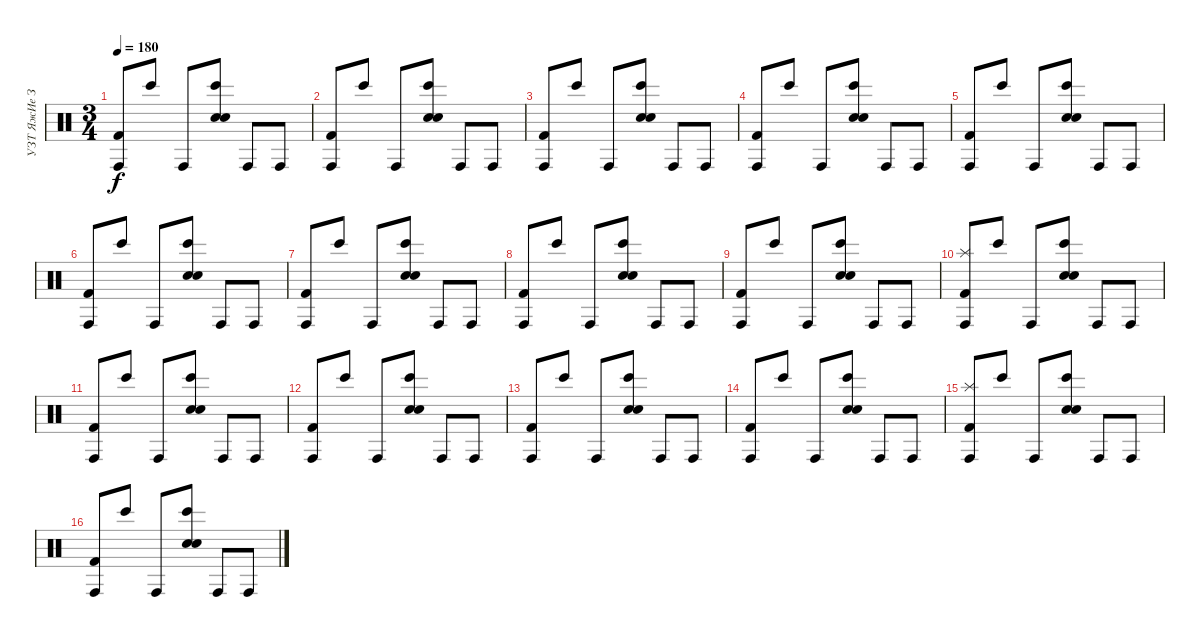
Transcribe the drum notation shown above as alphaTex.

\track ("УЗТ ЯжИе Зн" "УЗТ ЯжИе З") {instrument percussion}
\staff {score}
\articulation defaults
\ts (3 4)
\tempo 180
\clef neutral
\ks c
("Conga high (hit)" "Kick (hit) 2").8{dy f} "Bongo High (hit)".8 "Conga high (hit)".8 ("Bongo High (hit)" "Snare (hit) 2" "Hand Clap (hit)").8 "Conga high (hit)".8 "Conga high (hit)".8 |
("Conga high (hit)" "Kick (hit) 2").8 "Bongo High (hit)".8 "Conga high (hit)".8 ("Bongo High (hit)" "Snare (hit) 2" "Hand Clap (hit)").8 "Conga high (hit)".8 "Conga high (hit)".8 |
("Conga high (hit)" "Kick (hit) 2").8 "Bongo High (hit)".8 "Conga high (hit)".8 ("Bongo High (hit)" "Snare (hit) 2" "Hand Clap (hit)").8 "Conga high (hit)".8 "Conga high (hit)".8 |
("Conga high (hit)" "Kick (hit) 2").8 "Bongo High (hit)".8 "Conga high (hit)".8 ("Bongo High (hit)" "Snare (hit) 2" "Hand Clap (hit)").8 "Conga high (hit)".8 "Conga high (hit)".8 |
("Conga high (hit)" "Kick (hit) 2").8 "Bongo High (hit)".8 "Conga high (hit)".8 ("Bongo High (hit)" "Snare (hit) 2" "Hand Clap (hit)").8 "Conga high (hit)".8 "Conga high (hit)".8 |
("Conga high (hit)" "Kick (hit) 2").8 "Bongo High (hit)".8 "Conga high (hit)".8 ("Bongo High (hit)" "Snare (hit) 2" "Hand Clap (hit)").8 "Conga high (hit)".8 "Conga high (hit)".8 |
("Conga high (hit)" "Kick (hit) 2").8 "Bongo High (hit)".8 "Conga high (hit)".8 ("Bongo High (hit)" "Snare (hit) 2" "Hand Clap (hit)").8 "Conga high (hit)".8 "Conga high (hit)".8 |
("Conga high (hit)" "Kick (hit) 2").8 "Bongo High (hit)".8 "Conga high (hit)".8 ("Bongo High (hit)" "Snare (hit) 2" "Hand Clap (hit)").8 "Conga high (hit)".8 "Conga high (hit)".8 |
("Conga high (hit)" "Kick (hit) 2").8 "Bongo High (hit)".8 "Conga high (hit)".8 ("Bongo High (hit)" "Snare (hit) 2" "Hand Clap (hit)").8 "Conga high (hit)".8 "Conga high (hit)".8 |
("Conga high (hit)" "Kick (hit) 2" "Splash (hit)").8 "Bongo High (hit)".8 "Conga high (hit)".8 ("Bongo High (hit)" "Snare (hit) 2" "Hand Clap (hit)").8 "Conga high (hit)".8 "Conga high (hit)".8 |
("Conga high (hit)" "Kick (hit) 2").8 "Bongo High (hit)".8 "Conga high (hit)".8 ("Bongo High (hit)" "Snare (hit) 2" "Hand Clap (hit)").8 "Conga high (hit)".8 "Conga high (hit)".8 |
("Conga high (hit)" "Kick (hit) 2").8 "Bongo High (hit)".8 "Conga high (hit)".8 ("Bongo High (hit)" "Snare (hit) 2" "Hand Clap (hit)").8 "Conga high (hit)".8 "Conga high (hit)".8 |
("Conga high (hit)" "Kick (hit) 2").8 "Bongo High (hit)".8 "Conga high (hit)".8 ("Bongo High (hit)" "Snare (hit) 2" "Hand Clap (hit)").8 "Conga high (hit)".8 "Conga high (hit)".8 |
("Conga high (hit)" "Kick (hit) 2").8 "Bongo High (hit)".8 "Conga high (hit)".8 ("Bongo High (hit)" "Snare (hit) 2" "Hand Clap (hit)").8 "Conga high (hit)".8 "Conga high (hit)".8 |
("Conga high (hit)" "Kick (hit) 2" "Splash (hit)").8 "Bongo High (hit)".8 "Conga high (hit)".8 ("Bongo High (hit)" "Snare (hit) 2" "Hand Clap (hit)").8 "Conga high (hit)".8 "Conga high (hit)".8 |
("Conga high (hit)" "Kick (hit) 2").8 "Bongo High (hit)".8 "Conga high (hit)".8 ("Bongo High (hit)" "Snare (hit) 2" "Hand Clap (hit)").8 "Conga high (hit)".8 "Conga high (hit)".8
